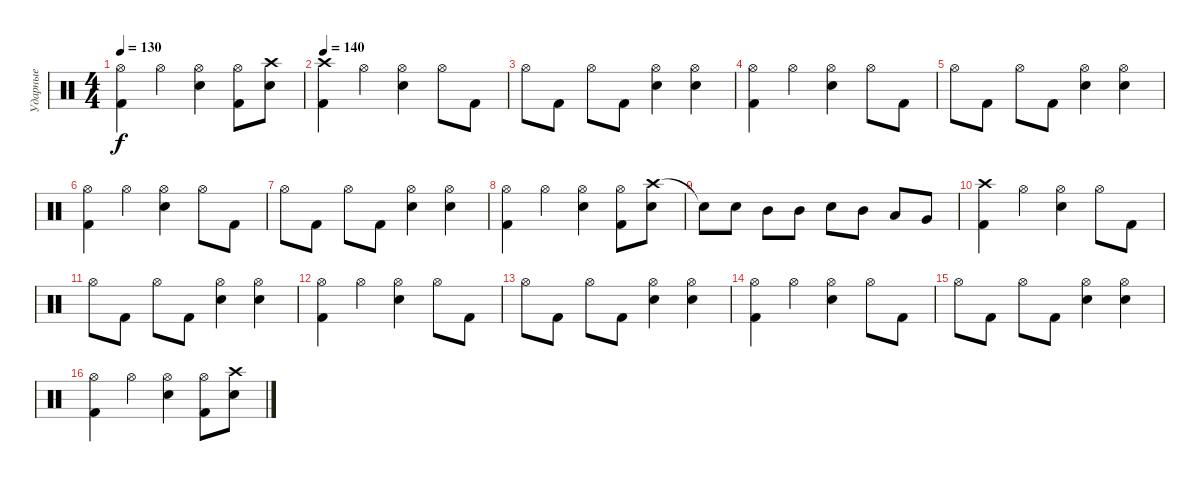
\track ("Ударные" "Ударные") {instrument percussion}
\staff {score}
\articulation defaults
\ts (4 4)
\tempo 130
\clef neutral
\ks c
("Hi-Hat (open)" "Kick (hit) 2").4{dy f} "Hi-Hat (open)".4 ("Hi-Hat (open)" "Snare (hit) 2").4 ("Hi-Hat (open)" "Kick (hit) 2").8 ("Crash high (hit)" "Snare (hit) 2").8 |
\tempo 140
("Crash high (hit)" "Kick (hit) 2").4 "Hi-Hat (open)".4 ("Hi-Hat (open)" "Snare (hit) 2").4 "Hi-Hat (open)".8 "Kick (hit) 2".8 |
"Hi-Hat (open)".8 "Kick (hit) 2".8 "Hi-Hat (open)".8 "Kick (hit) 2".8 ("Hi-Hat (open)" "Snare (hit) 2").4 ("Hi-Hat (open)" "Snare (hit) 2").4 |
("Hi-Hat (open)" "Kick (hit) 2").4 "Hi-Hat (open)".4 ("Hi-Hat (open)" "Snare (hit) 2").4 "Hi-Hat (open)".8 "Kick (hit) 2".8 |
"Hi-Hat (open)".8 "Kick (hit) 2".8 "Hi-Hat (open)".8 "Kick (hit) 2".8 ("Hi-Hat (open)" "Snare (hit) 2").4 ("Hi-Hat (open)" "Snare (hit) 2").4 |
("Hi-Hat (open)" "Kick (hit) 2").4 "Hi-Hat (open)".4 ("Hi-Hat (open)" "Snare (hit) 2").4 "Hi-Hat (open)".8 "Kick (hit) 2".8 |
"Hi-Hat (open)".8 "Kick (hit) 2".8 "Hi-Hat (open)".8 "Kick (hit) 2".8 ("Hi-Hat (open)" "Snare (hit) 2").4 ("Hi-Hat (open)" "Snare (hit) 2").4 |
("Hi-Hat (open)" "Kick (hit) 2").4 "Hi-Hat (open)".4 ("Hi-Hat (open)" "Snare (hit) 2").4 ("Hi-Hat (open)" "Kick (hit) 2").8 ("Crash high (hit)" "Snare (hit) 2").8 |
"Snare (hit)"{t}.8 "Snare (hit) 2".8 "Mid Tom (hit)".8 "Mid Tom (hit)".8 "Snare (hit) 2".8 "Mid Tom (hit)".8 "Low Tom (hit)".8 "Very Low Tom (hit)".8 |
("Crash high (hit)" "Kick (hit) 2").4 "Hi-Hat (open)".4 ("Hi-Hat (open)" "Snare (hit) 2").4 "Hi-Hat (open)".8 "Kick (hit) 2".8 |
"Hi-Hat (open)".8 "Kick (hit) 2".8 "Hi-Hat (open)".8 "Kick (hit) 2".8 ("Hi-Hat (open)" "Snare (hit) 2").4 ("Hi-Hat (open)" "Snare (hit) 2").4 |
("Hi-Hat (open)" "Kick (hit) 2").4 "Hi-Hat (open)".4 ("Hi-Hat (open)" "Snare (hit) 2").4 "Hi-Hat (open)".8 "Kick (hit) 2".8 |
"Hi-Hat (open)".8 "Kick (hit) 2".8 "Hi-Hat (open)".8 "Kick (hit) 2".8 ("Hi-Hat (open)" "Snare (hit) 2").4 ("Hi-Hat (open)" "Snare (hit) 2").4 |
("Hi-Hat (open)" "Kick (hit) 2").4 "Hi-Hat (open)".4 ("Hi-Hat (open)" "Snare (hit) 2").4 "Hi-Hat (open)".8 "Kick (hit) 2".8 |
"Hi-Hat (open)".8 "Kick (hit) 2".8 "Hi-Hat (open)".8 "Kick (hit) 2".8 ("Hi-Hat (open)" "Snare (hit) 2").4 ("Hi-Hat (open)" "Snare (hit) 2").4 |
("Hi-Hat (open)" "Kick (hit) 2").4 "Hi-Hat (open)".4 ("Hi-Hat (open)" "Snare (hit) 2").4 ("Hi-Hat (open)" "Kick (hit) 2").8 ("Crash high (hit)" "Snare (hit) 2").8
